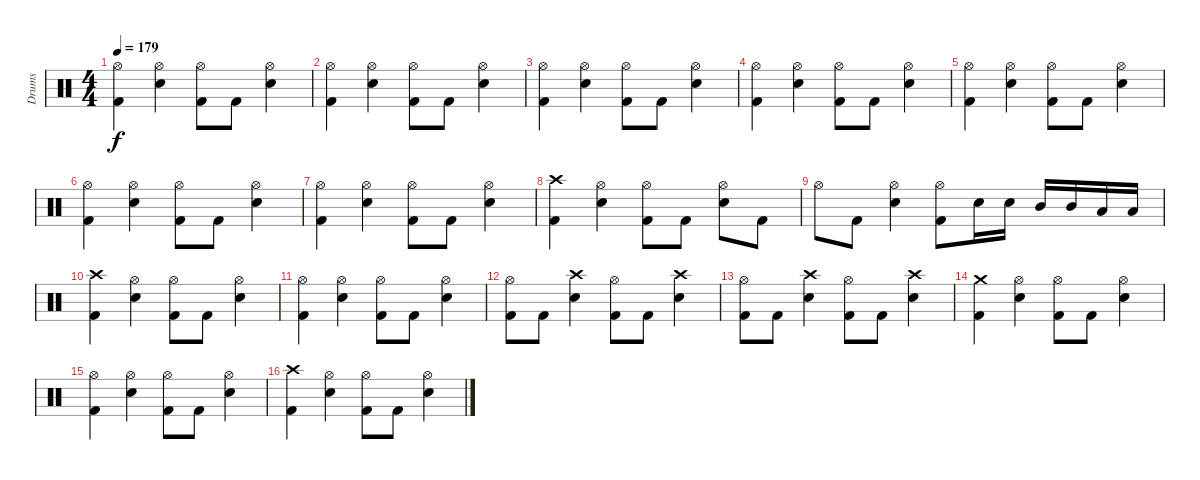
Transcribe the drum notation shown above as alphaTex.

\track ("Drums" "Drums") {instrument percussion}
\staff {score}
\articulation defaults
\ts (4 4)
\tempo 179
\clef neutral
\ks c
("Hi-Hat (open)" "Kick (hit) 2").4{dy f} ("Hi-Hat (open)" "Snare (hit) 2").4 ("Hi-Hat (open)" "Kick (hit) 2").8 "Kick (hit) 2".8 ("Hi-Hat (open)" "Snare (hit) 2").4 |
("Hi-Hat (open)" "Kick (hit) 2").4 ("Hi-Hat (open)" "Snare (hit) 2").4 ("Hi-Hat (open)" "Kick (hit) 2").8 "Kick (hit) 2".8 ("Hi-Hat (open)" "Snare (hit) 2").4 |
("Hi-Hat (open)" "Kick (hit) 2").4 ("Hi-Hat (open)" "Snare (hit) 2").4 ("Hi-Hat (open)" "Kick (hit) 2").8 "Kick (hit) 2".8 ("Hi-Hat (open)" "Snare (hit) 2").4 |
("Hi-Hat (open)" "Kick (hit) 2").4 ("Hi-Hat (open)" "Snare (hit) 2").4 ("Hi-Hat (open)" "Kick (hit) 2").8 "Kick (hit) 2".8 ("Hi-Hat (open)" "Snare (hit) 2").4 |
("Hi-Hat (open)" "Kick (hit) 2").4 ("Hi-Hat (open)" "Snare (hit) 2").4 ("Hi-Hat (open)" "Kick (hit) 2").8 "Kick (hit) 2".8 ("Hi-Hat (open)" "Snare (hit) 2").4 |
("Hi-Hat (open)" "Kick (hit) 2").4 ("Hi-Hat (open)" "Snare (hit) 2").4 ("Hi-Hat (open)" "Kick (hit) 2").8 "Kick (hit) 2".8 ("Hi-Hat (open)" "Snare (hit) 2").4 |
("Hi-Hat (open)" "Kick (hit) 2").4 ("Hi-Hat (open)" "Snare (hit) 2").4 ("Hi-Hat (open)" "Kick (hit) 2").8 "Kick (hit) 2".8 ("Hi-Hat (open)" "Snare (hit) 2").4 |
("Crash high (hit)" "Kick (hit) 2").4 ("Hi-Hat (open)" "Snare (hit) 2").4 ("Hi-Hat (open)" "Kick (hit) 2").8 "Kick (hit) 2".8 ("Hi-Hat (open)" "Snare (hit) 2").8 "Kick (hit) 2".8 |
"Hi-Hat (open)".8 "Kick (hit) 2".8 ("Hi-Hat (open)" "Snare (hit) 2").4 ("Hi-Hat (open)" "Kick (hit) 2").8 "Snare (hit) 2".16 "Snare (hit) 2".16 "Mid Tom (hit)".16 "Mid Tom (hit)".16 "Low Tom (hit)".16 "Low Tom (hit)".16 |
("Crash high (hit)" "Kick (hit) 2").4 ("Hi-Hat (open)" "Snare (hit) 2").4 ("Hi-Hat (open)" "Kick (hit) 2").8 "Kick (hit) 2".8 ("Hi-Hat (open)" "Snare (hit) 2").4 |
("Hi-Hat (open)" "Kick (hit) 2").4 ("Hi-Hat (open)" "Snare (hit) 2").4 ("Hi-Hat (open)" "Kick (hit) 2").8 "Kick (hit) 2".8 ("Hi-Hat (open)" "Snare (hit) 2").4 |
("Hi-Hat (open)" "Kick (hit) 2").8 "Kick (hit) 2".8 ("Crash high (hit)" "Snare (hit) 2").4 ("Hi-Hat (open)" "Kick (hit) 2").8 "Kick (hit) 2".8 ("Crash high (hit)" "Snare (hit) 2").4 |
("Hi-Hat (open)" "Kick (hit) 2").8 "Kick (hit) 2".8 ("Crash high (hit)" "Snare (hit) 2").4 ("Hi-Hat (open)" "Kick (hit) 2").8 "Kick (hit) 2".8 ("Crash high (hit)" "Snare (hit) 2").4 |
("Crash medium (hit)" "Kick (hit) 2").4 ("Hi-Hat (open)" "Snare (hit) 2").4 ("Hi-Hat (open)" "Kick (hit) 2").8 "Kick (hit) 2".8 ("Hi-Hat (open)" "Snare (hit) 2").4 |
("Hi-Hat (open)" "Kick (hit) 2").4 ("Hi-Hat (open)" "Snare (hit) 2").4 ("Hi-Hat (open)" "Kick (hit) 2").8 "Kick (hit) 2".8 ("Hi-Hat (open)" "Snare (hit) 2").4 |
("Crash high (hit)" "Kick (hit) 2").4 ("Hi-Hat (open)" "Snare (hit) 2").4 ("Hi-Hat (open)" "Kick (hit) 2").8 "Kick (hit) 2".8 ("Hi-Hat (open)" "Snare (hit) 2").4
